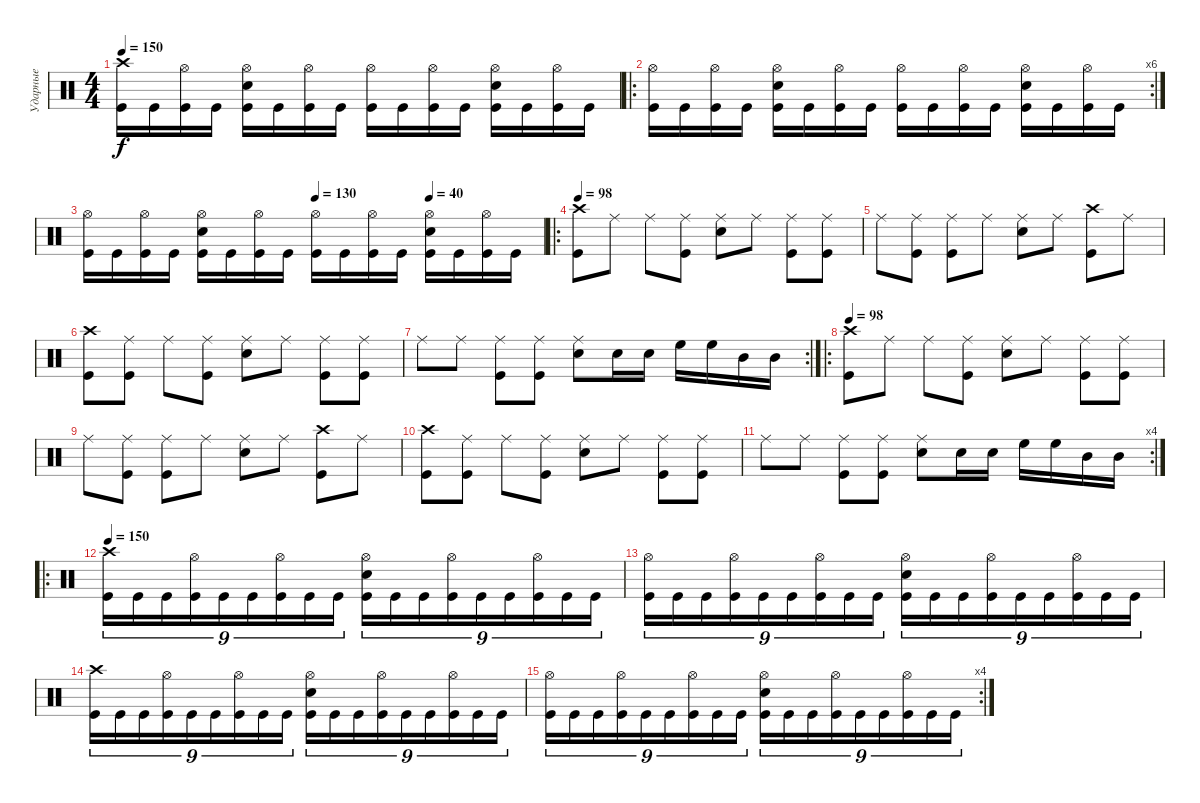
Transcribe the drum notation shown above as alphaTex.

\track ("Ударные" "Ударные") {instrument percussion}
\staff {score}
\articulation defaults
\ts (4 4)
\tempo 150
\clef neutral
\ks c
("Crash high (hit)" "Kick (hit)").16{dy f} "Kick (hit)".16 ("Hi-Hat (open)" "Kick (hit)").16 "Kick (hit)".16 ("Snare (hit) 2" "Hi-Hat (open)" "Kick (hit)").16 "Kick (hit)".16 ("Hi-Hat (open)" "Kick (hit)").16 "Kick (hit)".16 ("Hi-Hat (open)" "Kick (hit)").16 "Kick (hit)".16 ("Hi-Hat (open)" "Kick (hit)").16 "Kick (hit)".16 ("Snare (hit) 2" "Hi-Hat (open)" "Kick (hit)").16 "Kick (hit)".16 ("Hi-Hat (open)" "Kick (hit)").16 "Kick (hit)".16 |
\ro
\rc 6
("Hi-Hat (open)" "Kick (hit)").16 "Kick (hit)".16 ("Hi-Hat (open)" "Kick (hit)").16 "Kick (hit)".16 ("Snare (hit) 2" "Hi-Hat (open)" "Kick (hit)").16 "Kick (hit)".16 ("Hi-Hat (open)" "Kick (hit)").16 "Kick (hit)".16 ("Hi-Hat (open)" "Kick (hit)").16 "Kick (hit)".16 ("Hi-Hat (open)" "Kick (hit)").16 "Kick (hit)".16 ("Snare (hit) 2" "Hi-Hat (open)" "Kick (hit)").16 "Kick (hit)".16 ("Hi-Hat (open)" "Kick (hit)").16 "Kick (hit)".16 |
\tempo (40 0.75)
\tempo (130 0.5)
("Hi-Hat (open)" "Kick (hit)").16 "Kick (hit)".16 ("Hi-Hat (open)" "Kick (hit)").16 "Kick (hit)".16 ("Snare (hit) 2" "Hi-Hat (open)" "Kick (hit)").16 "Kick (hit)".16 ("Hi-Hat (open)" "Kick (hit)").16 "Kick (hit)".16 ("Hi-Hat (open)" "Kick (hit)").16 "Kick (hit)".16 ("Hi-Hat (open)" "Kick (hit)").16 "Kick (hit)".16 ("Snare (hit) 2" "Hi-Hat (open)" "Kick (hit)").16 "Kick (hit)".16 ("Hi-Hat (open)" "Kick (hit)").16 "Kick (hit)".16 |
\ro
\tempo 98
("Crash high (hit)" "Kick (hit)").8 "Ride (middle)".8 "Ride (middle)".8 ("Ride (middle)" "Kick (hit)").8 ("Ride (middle)" "Snare (hit) 2").8 "Ride (middle)".8 ("Ride (middle)" "Kick (hit)").8 ("Ride (middle)" "Kick (hit)").8 |
"Ride (middle)".8 ("Ride (middle)" "Kick (hit)").8 ("Ride (middle)" "Kick (hit)").8 "Ride (middle)".8 ("Ride (middle)" "Snare (hit) 2").8 "Ride (middle)".8 ("Crash high (hit)" "Kick (hit)").8 "Ride (middle)".8 |
("Crash high (hit)" "Kick (hit)").8 ("Ride (middle)" "Kick (hit)").8 "Ride (middle)".8 ("Ride (middle)" "Kick (hit)").8 ("Ride (middle)" "Snare (hit) 2").8 "Ride (middle)".8 ("Ride (middle)" "Kick (hit)").8 ("Ride (middle)" "Kick (hit)").8 |
\rc 2 "Ride (middle)".8 "Ride (middle)".8
("Ride (middle)" "Kick (hit)").8 ("Ride (middle)" "Kick (hit)").8 ("Ride (middle)" "Snare (hit) 2").8 "Snare (hit) 2".16 "Snare (hit) 2".16 "High Floor Tom (hit)".16 "High Floor Tom (hit)".16 "Mid Tom (hit)".16 "Mid Tom (hit)".16 |
\ro
\tempo 98
("Crash high (hit)" "Kick (hit)").8 "Ride (middle)".8 "Ride (middle)".8 ("Ride (middle)" "Kick (hit)").8 ("Ride (middle)" "Snare (hit) 2").8 "Ride (middle)".8 ("Ride (middle)" "Kick (hit)").8 ("Ride (middle)" "Kick (hit)").8 |
"Ride (middle)".8 ("Ride (middle)" "Kick (hit)").8 ("Ride (middle)" "Kick (hit)").8 "Ride (middle)".8 ("Ride (middle)" "Snare (hit) 2").8 "Ride (middle)".8 ("Crash high (hit)" "Kick (hit)").8 "Ride (middle)".8 |
("Crash high (hit)" "Kick (hit)").8 ("Ride (middle)" "Kick (hit)").8 "Ride (middle)".8 ("Ride (middle)" "Kick (hit)").8 ("Ride (middle)" "Snare (hit) 2").8 "Ride (middle)".8 ("Ride (middle)" "Kick (hit)").8 ("Ride (middle)" "Kick (hit)").8 |
\rc 4 "Ride (middle)".8 "Ride (middle)".8
("Ride (middle)" "Kick (hit)").8 ("Ride (middle)" "Kick (hit)").8 ("Ride (middle)" "Snare (hit) 2").8 "Snare (hit) 2".16 "Snare (hit) 2".16 "High Floor Tom (hit)".16 "High Floor Tom (hit)".16 "Mid Tom (hit)".16 "Mid Tom (hit)".16 |
\ro
\tempo 150
("Crash high (hit)" "Kick (hit)").16{tu (9 8)} "Kick (hit)".16{tu (9 8)} "Kick (hit)".16{tu (9 8)} ("Hi-Hat (open)" "Kick (hit)").16{tu (9 8)} "Kick (hit)".16{tu (9 8)} "Kick (hit)".16{tu (9 8)} ("Hi-Hat (open)" "Kick (hit)").16{tu (9 8)} "Kick (hit)".16{tu (9 8)} "Kick (hit)".16{tu (9 8)} ("Snare (hit) 2" "Hi-Hat (open)" "Kick (hit)").16{tu (9 8)} "Kick (hit)".16{tu (9 8)} "Kick (hit)".16{tu (9 8)} ("Hi-Hat (open)" "Kick (hit)").16{tu (9 8)} "Kick (hit)".16{tu (9 8)} "Kick (hit)".16{tu (9 8)} ("Hi-Hat (open)" "Kick (hit)").16{tu (9 8)} "Kick (hit)".16{tu (9 8)} "Kick (hit)".16{tu (9 8)} |
("Hi-Hat (open)" "Kick (hit)").16{tu (9 8)} "Kick (hit)".16{tu (9 8)} "Kick (hit)".16{tu (9 8)} ("Hi-Hat (open)" "Kick (hit)").16{tu (9 8)} "Kick (hit)".16{tu (9 8)} "Kick (hit)".16{tu (9 8)} ("Hi-Hat (open)" "Kick (hit)").16{tu (9 8)} "Kick (hit)".16{tu (9 8)} "Kick (hit)".16{tu (9 8)} ("Snare (hit) 2" "Hi-Hat (open)" "Kick (hit)").16{tu (9 8)} "Kick (hit)".16{tu (9 8)} "Kick (hit)".16{tu (9 8)} ("Hi-Hat (open)" "Kick (hit)").16{tu (9 8)} "Kick (hit)".16{tu (9 8)} "Kick (hit)".16{tu (9 8)} ("Hi-Hat (open)" "Kick (hit)").16{tu (9 8)} "Kick (hit)".16{tu (9 8)} "Kick (hit)".16{tu (9 8)} |
("Crash high (hit)" "Kick (hit)").16{tu (9 8)} "Kick (hit)".16{tu (9 8)} "Kick (hit)".16{tu (9 8)} ("Hi-Hat (open)" "Kick (hit)").16{tu (9 8)} "Kick (hit)".16{tu (9 8)} "Kick (hit)".16{tu (9 8)} ("Hi-Hat (open)" "Kick (hit)").16{tu (9 8)} "Kick (hit)".16{tu (9 8)} "Kick (hit)".16{tu (9 8)} ("Snare (hit) 2" "Hi-Hat (open)" "Kick (hit)").16{tu (9 8)} "Kick (hit)".16{tu (9 8)} "Kick (hit)".16{tu (9 8)} ("Hi-Hat (open)" "Kick (hit)").16{tu (9 8)} "Kick (hit)".16{tu (9 8)} "Kick (hit)".16{tu (9 8)} ("Hi-Hat (open)" "Kick (hit)").16{tu (9 8)} "Kick (hit)".16{tu (9 8)} "Kick (hit)".16{tu (9 8)} |
\rc 4
("Hi-Hat (open)" "Kick (hit)").16{tu (9 8)} "Kick (hit)".16{tu (9 8)} "Kick (hit)".16{tu (9 8)} ("Hi-Hat (open)" "Kick (hit)").16{tu (9 8)} "Kick (hit)".16{tu (9 8)} "Kick (hit)".16{tu (9 8)} ("Hi-Hat (open)" "Kick (hit)").16{tu (9 8)} "Kick (hit)".16{tu (9 8)} "Kick (hit)".16{tu (9 8)} ("Snare (hit) 2" "Hi-Hat (open)" "Kick (hit)").16{tu (9 8)} "Kick (hit)".16{tu (9 8)} "Kick (hit)".16{tu (9 8)} ("Hi-Hat (open)" "Kick (hit)").16{tu (9 8)} "Kick (hit)".16{tu (9 8)} "Kick (hit)".16{tu (9 8)} ("Hi-Hat (open)" "Kick (hit)").16{tu (9 8)} "Kick (hit)".16{tu (9 8)} "Kick (hit)".16{tu (9 8)}
